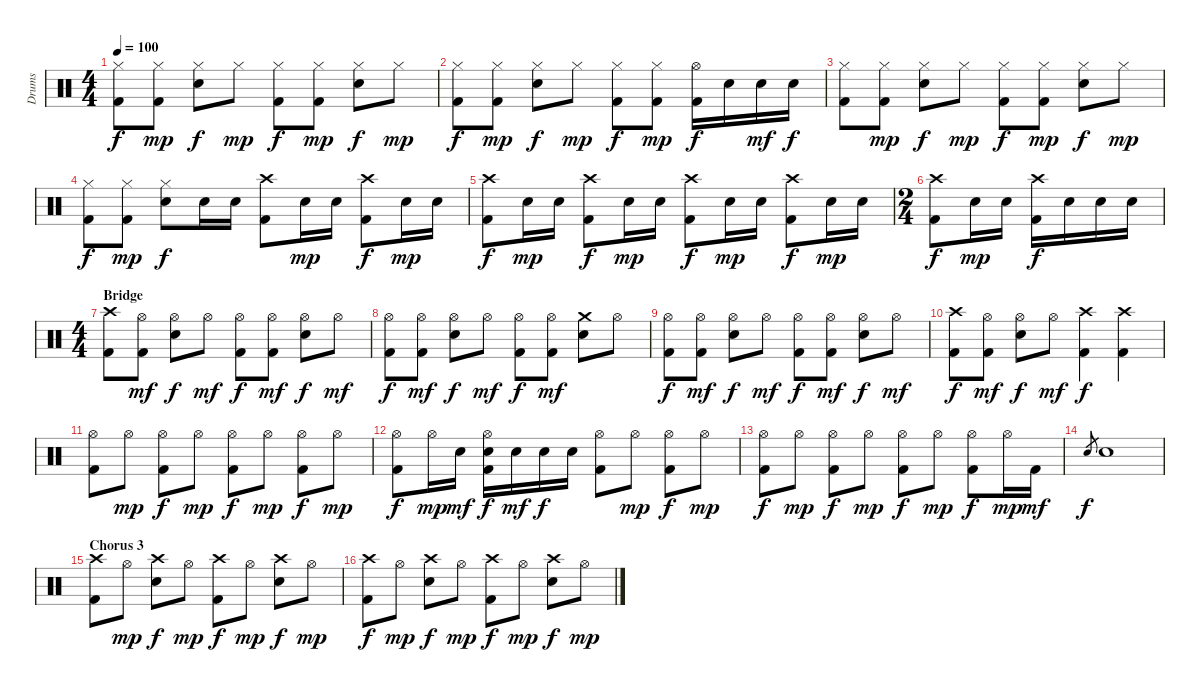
\track ("Drums" "Drums") {instrument percussion}
\staff {score}
\articulation defaults
\ts (4 4)
\tempo 100
\clef neutral
\ks c
("Hi-Hat (closed)" "Kick (hit) 2").8{dy f} ("Hi-Hat (closed)" "Kick (hit) 2").8{dy mp} ("Hi-Hat (closed)" "Snare (hit) 2").8{dy f} "Hi-Hat (closed)".8{dy mp} ("Hi-Hat (closed)" "Kick (hit) 2").8{dy f} ("Hi-Hat (closed)" "Kick (hit) 2").8{dy mp} ("Hi-Hat (closed)" "Snare (hit) 2").8{dy f} "Hi-Hat (closed)".8{dy mp} |
("Hi-Hat (closed)" "Kick (hit) 2").8{dy f} ("Hi-Hat (closed)" "Kick (hit) 2").8{dy mp} ("Hi-Hat (closed)" "Snare (hit) 2").8{dy f} "Hi-Hat (closed)".8{dy mp} ("Hi-Hat (closed)" "Kick (hit) 2").8{dy f} ("Hi-Hat (closed)" "Kick (hit) 2").8{dy mp} ("Hi-Hat (open)" "Kick (hit) 2").16{dy f} "Snare (hit) 2".16 "Snare (hit) 2".16{dy mf} "Snare (hit) 2".16{dy f} |
("Hi-Hat (closed)" "Kick (hit) 2").8 ("Hi-Hat (closed)" "Kick (hit) 2").8{dy mp} ("Hi-Hat (closed)" "Snare (hit) 2").8{dy f} "Hi-Hat (closed)".8{dy mp} ("Hi-Hat (closed)" "Kick (hit) 2").8{dy f} ("Hi-Hat (closed)" "Kick (hit) 2").8{dy mp} ("Hi-Hat (closed)" "Snare (hit) 2").8{dy f} "Hi-Hat (closed)".8{dy mp} |
("Hi-Hat (closed)" "Kick (hit) 2").8{dy f} ("Hi-Hat (closed)" "Kick (hit) 2").8{dy mp} ("Hi-Hat (closed)" "Snare (hit) 2").8{dy f} "Snare (hit) 2".16 "Snare (hit) 2".16 ("Crash high (hit)" "Kick (hit) 2").8 "Snare (hit) 2".16{dy mp} "Snare (hit) 2".16 ("Crash high (hit)" "Kick (hit) 2").8{dy f} "Snare (hit) 2".16{dy mp} "Snare (hit) 2".16 |
("Crash high (hit)" "Kick (hit) 2").8{dy f} "Snare (hit) 2".16{dy mp} "Snare (hit) 2".16 ("Crash high (hit)" "Kick (hit) 2").8{dy f} "Snare (hit) 2".16{dy mp} "Snare (hit) 2".16 ("Crash high (hit)" "Kick (hit) 2").8{dy f} "Snare (hit) 2".16{dy mp} "Snare (hit) 2".16 ("Crash high (hit)" "Kick (hit) 2").8{dy f} "Snare (hit) 2".16{dy mp} "Snare (hit) 2".16 |
\ts (2 4)
("Crash high (hit)" "Kick (hit) 2").8{dy f} "Snare (hit) 2".16{dy mp} "Snare (hit) 2".16 ("Crash high (hit)" "Kick (hit) 2").16{dy f} "Snare (hit) 2".16 "Snare (hit) 2".16 "Snare (hit) 2".16 |
\ts (4 4)
\section ("" "Bridge")
("Crash high (hit)" "Kick (hit) 2").8 ("Hi-Hat (open)" "Kick (hit) 2").8{dy mf} ("Hi-Hat (open)" "Snare (hit) 2").8{dy f} "Hi-Hat (open)".8{dy mf} ("Hi-Hat (open)" "Kick (hit) 2").8{dy f} ("Hi-Hat (open)" "Kick (hit) 2").8{dy mf} ("Hi-Hat (open)" "Snare (hit) 2").8{dy f} "Hi-Hat (open)".8{dy mf} |
("Hi-Hat (open)" "Kick (hit) 2").8{dy f} ("Hi-Hat (open)" "Kick (hit) 2").8{dy mf} ("Hi-Hat (open)" "Snare (hit) 2").8{dy f} "Hi-Hat (open)".8{dy mf} ("Hi-Hat (open)" "Kick (hit) 2").8{dy f} ("Hi-Hat (open)" "Kick (hit) 2").8{dy mf} ("Crash medium (hit)" "Snare (hit) 2").8 "Hi-Hat (open)".8 |
("Hi-Hat (open)" "Kick (hit) 2").8{dy f} ("Hi-Hat (open)" "Kick (hit) 2").8{dy mf} ("Hi-Hat (open)" "Snare (hit) 2").8{dy f} "Hi-Hat (open)".8{dy mf} ("Hi-Hat (open)" "Kick (hit) 2").8{dy f} ("Hi-Hat (open)" "Kick (hit) 2").8{dy mf} ("Hi-Hat (open)" "Snare (hit) 2").8{dy f} "Hi-Hat (open)".8{dy mf} |
("Crash high (hit)" "Kick (hit) 2").8{dy f} ("Hi-Hat (open)" "Kick (hit) 2").8{dy mf} ("Hi-Hat (open)" "Snare (hit) 2").8{dy f} "Hi-Hat (open)".8{dy mf} ("Crash high (hit)" "Kick (hit) 2").4{dy f} ("Crash high (hit)" "Kick (hit) 2").4 |
("Hi-Hat (open)" "Kick (hit) 2").8 "Hi-Hat (open)".8{dy mp} ("Hi-Hat (open)" "Kick (hit) 2").8{dy f} "Hi-Hat (open)".8{dy mp} ("Hi-Hat (open)" "Kick (hit) 2").8{dy f} "Hi-Hat (open)".8{dy mp} ("Hi-Hat (open)" "Kick (hit) 2").8{dy f} "Hi-Hat (open)".8{dy mp} |
("Hi-Hat (open)" "Kick (hit) 2").8{dy f} "Hi-Hat (open)".16{dy mp} "Snare (hit) 2".16{dy mf} ("Hi-Hat (open)" "Snare (hit) 2" "Kick (hit) 2").16{dy f} "Snare (hit) 2".16{dy mf} "Snare (hit) 2".16{dy f} "Snare (hit) 2".16 ("Hi-Hat (open)" "Kick (hit) 2").8 "Hi-Hat (open)".8{dy mp} ("Hi-Hat (open)" "Kick (hit) 2").8{dy f} "Hi-Hat (open)".8{dy mp} |
("Hi-Hat (open)" "Kick (hit) 2").8{dy f} "Hi-Hat (open)".8{dy mp} ("Hi-Hat (open)" "Kick (hit) 2").8{dy f} "Hi-Hat (open)".8{dy mp} ("Hi-Hat (open)" "Kick (hit) 2").8{dy f} "Hi-Hat (open)".8{dy mp} ("Hi-Hat (open)" "Kick (hit) 2").8{dy f} "Hi-Hat (open)".16{dy mp} "Kick (hit) 2".16{dy mf} |
"Snare (hit) 2".8{gr dy f} "Snare (hit) 2".1 |
\section ("" "Chorus 3")
("Crash high (hit)" "Kick (hit) 2").8 "Hi-Hat (open)".8{dy mp} ("Crash high (hit)" "Snare (hit) 2").8{dy f} "Hi-Hat (open)".8{dy mp} ("Crash high (hit)" "Kick (hit) 2").8{dy f} "Hi-Hat (open)".8{dy mp} ("Crash high (hit)" "Snare (hit) 2").8{dy f} "Hi-Hat (open)".8{dy mp} |
("Crash high (hit)" "Kick (hit) 2").8{dy f} "Hi-Hat (open)".8{dy mp} ("Crash high (hit)" "Snare (hit) 2").8{dy f} "Hi-Hat (open)".8{dy mp} ("Crash high (hit)" "Kick (hit) 2").8{dy f} "Hi-Hat (open)".8{dy mp} ("Crash high (hit)" "Snare (hit) 2").8{dy f} "Hi-Hat (open)".8{dy mp}
